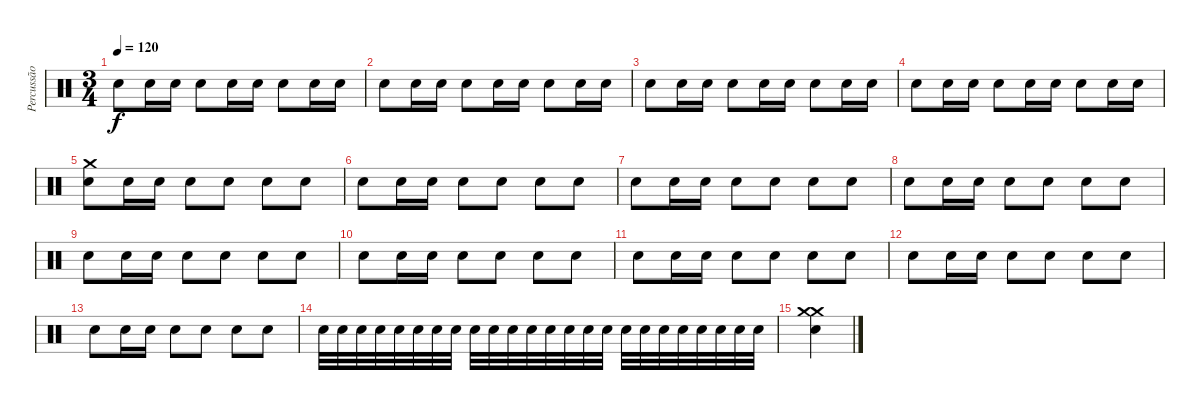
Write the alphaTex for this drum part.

\track ("Percussão" "Percussão") {instrument percussion}
\staff {score}
\articulation defaults
\ts (3 4)
\tempo 120
\clef neutral
\ks c "Electric Snare (hit)".8{dy f} "Electric Snare (hit)".16 "Electric Snare (hit)".16 "Electric Snare (hit)".8 "Electric Snare (hit)".16 "Electric Snare (hit)".16 "Electric Snare (hit)".8 "Electric Snare (hit)".16 "Electric Snare (hit)".16
|
"Electric Snare (hit)".8 "Electric Snare (hit)".16 "Electric Snare (hit)".16 "Electric Snare (hit)".8 "Electric Snare (hit)".16 "Electric Snare (hit)".16 "Electric Snare (hit)".8 "Electric Snare (hit)".16 "Electric Snare (hit)".16 |
"Electric Snare (hit)".8 "Electric Snare (hit)".16 "Electric Snare (hit)".16 "Electric Snare (hit)".8 "Electric Snare (hit)".16 "Electric Snare (hit)".16 "Electric Snare (hit)".8 "Electric Snare (hit)".16 "Electric Snare (hit)".16 |
"Electric Snare (hit)".8 "Electric Snare (hit)".16 "Electric Snare (hit)".16 "Electric Snare (hit)".8 "Electric Snare (hit)".16 "Electric Snare (hit)".16 "Electric Snare (hit)".8 "Electric Snare (hit)".16 "Electric Snare (hit)".16 |
("Electric Snare (hit)" "Crash medium (hit)").8 "Electric Snare (hit)".16 "Electric Snare (hit)".16 "Electric Snare (hit)".8 "Electric Snare (hit)".8 "Electric Snare (hit)".8 "Electric Snare (hit)".8 |
"Electric Snare (hit)".8 "Electric Snare (hit)".16 "Electric Snare (hit)".16 "Electric Snare (hit)".8 "Electric Snare (hit)".8 "Electric Snare (hit)".8 "Electric Snare (hit)".8 |
"Electric Snare (hit)".8 "Electric Snare (hit)".16 "Electric Snare (hit)".16 "Electric Snare (hit)".8 "Electric Snare (hit)".8 "Electric Snare (hit)".8 "Electric Snare (hit)".8 |
"Electric Snare (hit)".8 "Electric Snare (hit)".16 "Electric Snare (hit)".16 "Electric Snare (hit)".8 "Electric Snare (hit)".8 "Electric Snare (hit)".8 "Electric Snare (hit)".8 |
"Electric Snare (hit)".8 "Electric Snare (hit)".16 "Electric Snare (hit)".16 "Electric Snare (hit)".8 "Electric Snare (hit)".8 "Electric Snare (hit)".8 "Electric Snare (hit)".8 |
"Electric Snare (hit)".8 "Electric Snare (hit)".16 "Electric Snare (hit)".16 "Electric Snare (hit)".8 "Electric Snare (hit)".8 "Electric Snare (hit)".8 "Electric Snare (hit)".8 |
"Electric Snare (hit)".8 "Electric Snare (hit)".16 "Electric Snare (hit)".16 "Electric Snare (hit)".8 "Electric Snare (hit)".8 "Electric Snare (hit)".8 "Electric Snare (hit)".8 |
"Electric Snare (hit)".8 "Electric Snare (hit)".16 "Electric Snare (hit)".16 "Electric Snare (hit)".8 "Electric Snare (hit)".8 "Electric Snare (hit)".8 "Electric Snare (hit)".8 |
"Electric Snare (hit)".8 "Electric Snare (hit)".16 "Electric Snare (hit)".16 "Electric Snare (hit)".8 "Electric Snare (hit)".8 "Electric Snare (hit)".8 "Electric Snare (hit)".8 |
"Electric Snare (hit)".32 "Electric Snare (hit)".32 "Electric Snare (hit)".32 "Electric Snare (hit)".32 "Electric Snare (hit)".32 "Electric Snare (hit)".32 "Electric Snare (hit)".32 "Electric Snare (hit)".32 "Electric Snare (hit)".32 "Electric Snare (hit)".32 "Electric Snare (hit)".32 "Electric Snare (hit)".32 "Electric Snare (hit)".32 "Electric Snare (hit)".32 "Electric Snare (hit)".32 "Electric Snare (hit)".32 "Electric Snare (hit)".32 "Electric Snare (hit)".32 "Electric Snare (hit)".32 "Electric Snare (hit)".32 "Electric Snare (hit)".32 "Electric Snare (hit)".32 "Electric Snare (hit)".32 "Electric Snare (hit)".32 |
("Electric Snare (hit)" "Crash medium (hit)" "Crash medium (hit)").4
